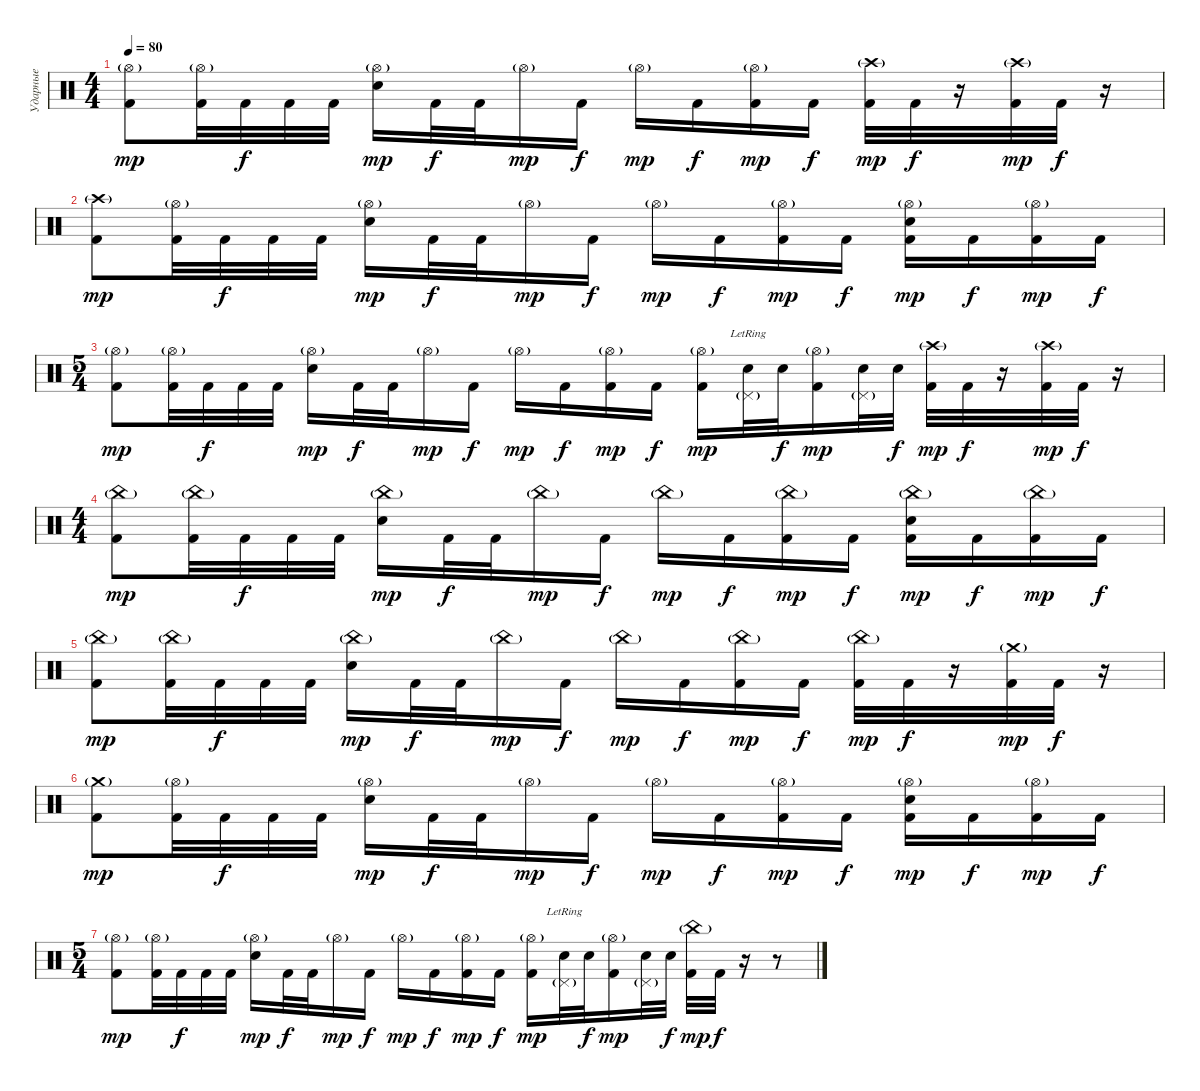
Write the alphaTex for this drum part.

\track ("Ударные" "Ударные") {instrument percussion}
\staff {score}
\articulation defaults
\ts (4 4)
\tempo 80
\clef neutral
\ks c
("Hi-Hat (open)"{g} "Kick (hit) 2").8{dy mp} ("Hi-Hat (open)"{g} "Kick (hit) 2").32 "Kick (hit) 2".32{dy f} "Kick (hit) 2".32 "Kick (hit) 2".32 ("Hi-Hat (open)"{g} "Electric Snare (hit)").16{dy mp} "Kick (hit) 2".32{dy f} "Kick (hit) 2".32 "Hi-Hat (open)"{g}.16{dy mp} "Kick (hit) 2".16{dy f} "Hi-Hat (open)"{g}.16{dy mp} "Kick (hit) 2".16{dy f} ("Hi-Hat (open)"{g} "Kick (hit) 2").16{dy mp} "Kick (hit) 2".16{dy f} ("Crash high (hit)"{g} "Kick (hit) 2").32{dy mp} "Kick (hit) 2".32{dy f} r.16{volume 0} ("Crash high (hit)"{g} "Kick (hit) 2").32{dy mp volume 16} "Kick (hit) 2".32{dy f} r.16{volume 0} |
("Crash high (hit)"{g} "Kick (hit) 2").8{dy mp volume 16} ("Hi-Hat (open)"{g} "Kick (hit) 2").32 "Kick (hit) 2".32{dy f} "Kick (hit) 2".32 "Kick (hit) 2".32 ("Hi-Hat (open)"{g} "Electric Snare (hit)").16{dy mp} "Kick (hit) 2".32{dy f} "Kick (hit) 2".32 "Hi-Hat (open)"{g}.16{dy mp} "Kick (hit) 2".16{dy f} "Hi-Hat (open)"{g}.16{dy mp} "Kick (hit) 2".16{dy f} ("Hi-Hat (open)"{g} "Kick (hit) 2").16{dy mp} "Kick (hit) 2".16{dy f} ("Hi-Hat (open)"{g} "Electric Snare (hit)" "Kick (hit) 2").16{dy mp} "Kick (hit) 2".16{dy f} ("Hi-Hat (open)"{g} "Kick (hit) 2").16{dy mp} "Kick (hit) 2".16{dy f} |
\ts (5 4)
("Hi-Hat (open)"{g} "Kick (hit) 2").8{dy mp} ("Hi-Hat (open)"{g} "Kick (hit) 2").32 "Kick (hit) 2".32{dy f} "Kick (hit) 2".32 "Kick (hit) 2".32 ("Hi-Hat (open)"{g} "Electric Snare (hit)").16{dy mp} "Kick (hit) 2".32{dy f} "Kick (hit) 2".32 "Hi-Hat (open)"{g}.16{dy mp} "Kick (hit) 2".16{dy f} "Hi-Hat (open)"{g}.16{dy mp} "Kick (hit) 2".16{dy f} ("Hi-Hat (open)"{g} "Kick (hit) 2").16{dy mp} "Kick (hit) 2".16{dy f} ("Hi-Hat (open)"{g} "Kick (hit) 2").16{dy mp} ("Pedal Hi-Hat (hit)"{g lr} "Electric Snare (hit)").32 "Electric Snare (hit)".32{dy f} ("Hi-Hat (open)"{g} "Kick (hit) 2").16{dy mp} ("Pedal Hi-Hat (hit)"{g} "Electric Snare (hit)").32 "Electric Snare (hit)".32{dy f} ("Crash high (hit)"{g} "Kick (hit) 2").32{dy mp} "Kick (hit) 2".32{dy f} r.16{volume 0} ("Crash high (hit)"{g} "Kick (hit) 2").32{dy mp volume 16} "Kick (hit) 2".32{dy f} r.16{volume 0} |
\ts (4 4)
("China (hit)"{g} "Kick (hit) 2").8{dy mp volume 16} ("China (hit)"{g} "Kick (hit) 2").32 "Kick (hit) 2".32{dy f} "Kick (hit) 2".32 "Kick (hit) 2".32 ("China (hit)"{g} "Electric Snare (hit)").16{dy mp} "Kick (hit) 2".32{dy f} "Kick (hit) 2".32 "China (hit)"{g}.16{dy mp} "Kick (hit) 2".16{dy f} "China (hit)"{g}.16{dy mp} "Kick (hit) 2".16{dy f} ("China (hit)"{g} "Kick (hit) 2").16{dy mp} "Kick (hit) 2".16{dy f} ("China (hit)"{g} "Electric Snare (hit)" "Kick (hit) 2").16{dy mp} "Kick (hit) 2".16{dy f} ("China (hit)"{g} "Kick (hit) 2").16{dy mp} "Kick (hit) 2".16{dy f} |
("China (hit)"{g} "Kick (hit) 2").8{dy mp} ("China (hit)"{g} "Kick (hit) 2").32 "Kick (hit) 2".32{dy f} "Kick (hit) 2".32 "Kick (hit) 2".32 ("China (hit)"{g} "Electric Snare (hit)").16{dy mp} "Kick (hit) 2".32{dy f} "Kick (hit) 2".32 "China (hit)"{g}.16{dy mp} "Kick (hit) 2".16{dy f} "China (hit)"{g}.16{dy mp} "Kick (hit) 2".16{dy f} ("China (hit)"{g} "Kick (hit) 2").16{dy mp} "Kick (hit) 2".16{dy f} ("China (hit)"{g} "Kick (hit) 2").32{dy mp} "Kick (hit) 2".32{dy f} r.16{volume 0} ("Crash medium (hit)"{g} "Kick (hit) 2").32{dy mp volume 16} "Kick (hit) 2".32{dy f} r.16{volume 0} |
("Crash medium (hit)"{g} "Kick (hit) 2").8{dy mp volume 16} ("Hi-Hat (open)"{g} "Kick (hit) 2").32 "Kick (hit) 2".32{dy f} "Kick (hit) 2".32 "Kick (hit) 2".32 ("Hi-Hat (open)"{g} "Electric Snare (hit)").16{dy mp} "Kick (hit) 2".32{dy f} "Kick (hit) 2".32 "Hi-Hat (open)"{g}.16{dy mp} "Kick (hit) 2".16{dy f} "Hi-Hat (open)"{g}.16{dy mp} "Kick (hit) 2".16{dy f} ("Hi-Hat (open)"{g} "Kick (hit) 2").16{dy mp} "Kick (hit) 2".16{dy f} ("Hi-Hat (open)"{g} "Electric Snare (hit)" "Kick (hit) 2").16{dy mp} "Kick (hit) 2".16{dy f} ("Hi-Hat (open)"{g} "Kick (hit) 2").16{dy mp} "Kick (hit) 2".16{dy f} |
\ts (5 4)
("Hi-Hat (open)"{g} "Kick (hit) 2").8{dy mp} ("Hi-Hat (open)"{g} "Kick (hit) 2").32 "Kick (hit) 2".32{dy f} "Kick (hit) 2".32 "Kick (hit) 2".32 ("Hi-Hat (open)"{g} "Electric Snare (hit)").16{dy mp} "Kick (hit) 2".32{dy f} "Kick (hit) 2".32 "Hi-Hat (open)"{g}.16{dy mp} "Kick (hit) 2".16{dy f} "Hi-Hat (open)"{g}.16{dy mp} "Kick (hit) 2".16{dy f} ("Hi-Hat (open)"{g} "Kick (hit) 2").16{dy mp} "Kick (hit) 2".16{dy f} ("Hi-Hat (open)"{g} "Kick (hit) 2").16{dy mp} ("Pedal Hi-Hat (hit)"{g lr} "Electric Snare (hit)").32 "Electric Snare (hit)".32{dy f} ("Hi-Hat (open)"{g} "Kick (hit) 2").16{dy mp} ("Pedal Hi-Hat (hit)"{g} "Electric Snare (hit)").32 "Electric Snare (hit)".32{dy f} ("China (hit)"{g} "Kick (hit) 2").32{dy mp} "Kick (hit) 2".32{dy f} r.16 r.8
